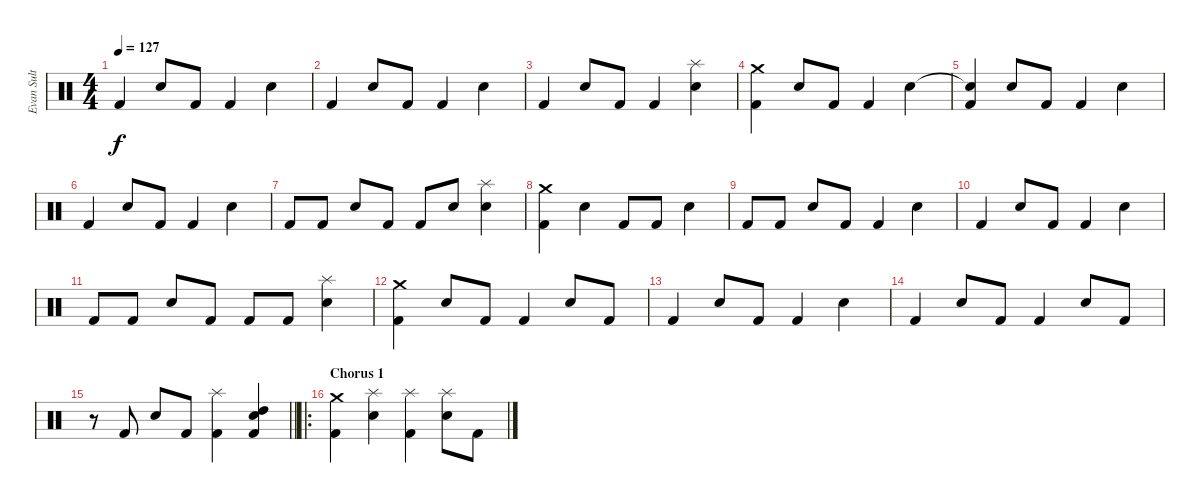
\track ("Evan Sult" "Evan Sult") {instrument percussion}
\staff {score}
\articulation defaults
\ts (4 4)
\tempo 127
\clef neutral
\ks c "Kick (hit) 2".4{dy f} "Electric Snare (hit)".8 "Kick (hit) 2".8 "Kick (hit) 2".4 "Electric Snare (hit)".4
|
"Kick (hit) 2".4 "Electric Snare (hit)".8 "Kick (hit) 2".8 "Kick (hit) 2".4 "Electric Snare (hit)".4 |
"Kick (hit) 2".4 "Electric Snare (hit)".8 "Kick (hit) 2".8 "Kick (hit) 2".4 ("Electric Snare (hit)" "Splash (hit)").4 |
("Crash medium (hit)" "Kick (hit) 2").4 "Electric Snare (hit)".8 "Kick (hit) 2".8 "Kick (hit) 2".4 "Electric Snare (hit)".4 |
("Snare (hit)"{t} "Kick (hit) 2").4 "Electric Snare (hit)".8 "Kick (hit) 2".8 "Kick (hit) 2".4 "Electric Snare (hit)".4 |
"Kick (hit) 2".4 "Electric Snare (hit)".8 "Kick (hit) 2".8 "Kick (hit) 2".4 "Electric Snare (hit)".4 |
"Kick (hit) 2".8 "Kick (hit) 2".8 "Electric Snare (hit)".8 "Kick (hit) 2".8 "Kick (hit) 2".8 "Electric Snare (hit)".8 ("Electric Snare (hit)" "Splash (hit)").4 |
("Crash medium (hit)" "Kick (hit) 2").4 "Electric Snare (hit)".4 "Kick (hit) 2".8 "Kick (hit) 2".8 "Electric Snare (hit)".4 |
"Kick (hit) 2".8 "Kick (hit) 2".8 "Electric Snare (hit)".8 "Kick (hit) 2".8 "Kick (hit) 2".4 "Electric Snare (hit)".4 |
"Kick (hit) 2".4 "Electric Snare (hit)".8 "Kick (hit) 2".8 "Kick (hit) 2".4 "Electric Snare (hit)".4 |
"Kick (hit) 2".8 "Kick (hit) 2".8 "Electric Snare (hit)".8 "Kick (hit) 2".8 "Kick (hit) 2".8 "Kick (hit) 2".8 ("Electric Snare (hit)" "Splash (hit)").4 |
("Crash medium (hit)" "Kick (hit) 2").4 "Electric Snare (hit)".8 "Kick (hit) 2".8 "Kick (hit) 2".4 "Electric Snare (hit)".8 "Kick (hit) 2".8 |
"Kick (hit) 2".4 "Electric Snare (hit)".8 "Kick (hit) 2".8 "Kick (hit) 2".4 "Electric Snare (hit)".4 |
"Kick (hit) 2".4 "Electric Snare (hit)".8 "Kick (hit) 2".8 "Kick (hit) 2".4 "Electric Snare (hit)".8 "Kick (hit) 2".8 |
\barLineRight lightlight
r.8 "Kick (hit) 2".8 "Electric Snare (hit)".8 "Kick (hit) 2".8 ("Splash (hit)" "Kick (hit) 2").4 ("Electric Snare (hit)" "Kick (hit) 2" "High Tom (hit)").4 |
\ro
\section ("" "Chorus 1")
("Crash medium (hit)" "Kick (hit) 2").4 ("Electric Snare (hit)" "Splash (hit)").4 ("Kick (hit) 2" "Splash (hit)").4 ("Electric Snare (hit)" "Splash (hit)").8 "Kick (hit) 2".8
